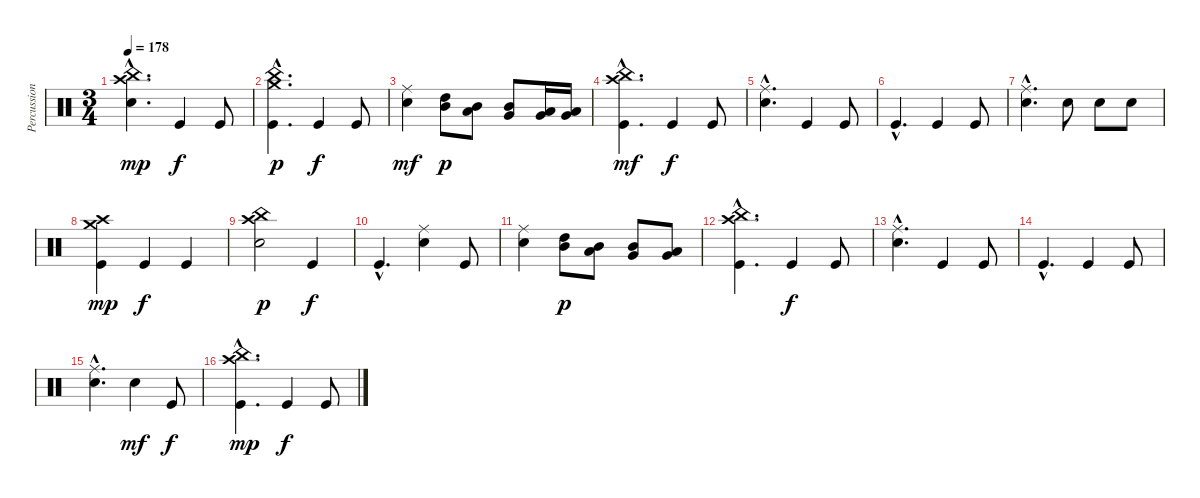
\track ("Percussions" "Percussion") {instrument percussion}
\staff {score}
\articulation defaults
\ts (3 4)
\tempo 178
\clef neutral
\ks c
("Electric Snare (hit)"{hac} "China (hit)"{hac} "Crash high (hit)"{hac}).4{d dy mp} "Kick (hit)".4{dy f} "Kick (hit)".8 |
("Kick (hit)"{hac} "Crash medium (hit)"{hac} "China (hit)"{hac}).4{d dy p} "Kick (hit)".4{dy f} "Kick (hit)".8 |
("Electric Snare (hit)" "Ride (middle)").4{dy mf} ("Mid Tom (hit)" "High Tom (hit)").8{dy p} ("Low Tom (hit)" "Mid Tom (hit)").8 ("Very Low Tom (hit)" "Mid Tom (hit)").8 ("Very Low Tom (hit)" "Low Tom (hit)").16 ("Very Low Tom (hit)" "Low Tom (hit)").16 |
("Kick (hit)"{hac} "China (hit)"{hac} "Crash high (hit)"{hac}).4{d dy mf} "Kick (hit)".4{dy f} "Kick (hit)".8 |
("Electric Snare (hit)"{hac} "Ride (middle)"{hac}).4{d} "Kick (hit)".4 "Kick (hit)".8 |
"Kick (hit)"{hac}.4{d} "Kick (hit)".4 "Kick (hit)".8 |
("Electric Snare (hit)"{hac} "Ride (middle)"{hac}).4{d} "Electric Snare (hit)".8 "Electric Snare (hit)".8 "Electric Snare (hit)".8 |
("Kick (hit)" "Crash high (hit)" "Crash medium (hit)").4{dy mp} "Kick (hit)".4{dy f} "Kick (hit)".4 |
("Electric Snare (hit)" "Crash high (hit)" "China (hit)").2{dy p} "Kick (hit)".4{dy f} |
"Kick (hit)"{hac}.4{d} ("Electric Snare (hit)" "Ride (middle)").4 "Kick (hit)".8 |
("Electric Snare (hit)" "Ride (middle)").4 ("Mid Tom (hit)" "High Tom (hit)").8{dy p} ("Low Tom (hit)" "Mid Tom (hit)").8 ("Very Low Tom (hit)" "Mid Tom (hit)").8 ("Very Low Tom (hit)" "Low Tom (hit)").8 |
("Kick (hit)"{hac} "Crash high (hit)"{hac} "China (hit)"{hac}).4{d} "Kick (hit)".4{dy f} "Kick (hit)".8 |
("Electric Snare (hit)"{hac} "Ride (middle)"{hac}).4{d} "Kick (hit)".4 "Kick (hit)".8 |
"Kick (hit)"{hac}.4{d} "Kick (hit)".4 "Kick (hit)".8 |
("Electric Snare (hit)"{hac} "Ride (middle)"{hac}).4{d} "Electric Snare (hit)".4{dy mf} "Kick (hit)".8{dy f} |
("Kick (hit)"{hac} "China (hit)"{hac} "Crash high (hit)"{hac}).4{d dy mp} "Kick (hit)".4{dy f} "Kick (hit)".8
